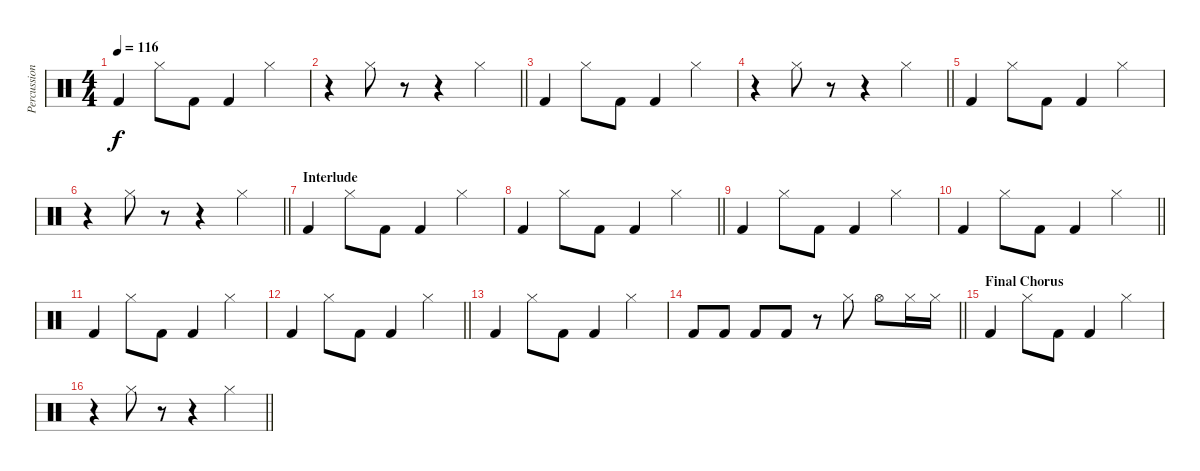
\track ("Percussion" "Percussion") {instrument percussion}
\staff {score}
\articulation defaults
\ts (4 4)
\tempo 116
\clef neutral
\ks c "Kick (hit) 2".4{dy f} "Hi-Hat (closed)".8 "Kick (hit) 2".8 "Kick (hit) 2".4 "Hi-Hat (closed)".4
|
\barLineRight lightlight
r.4 "Hi-Hat (closed)".8 r.8 r.4 "Hi-Hat (closed)".4 |
"Kick (hit) 2".4 "Hi-Hat (closed)".8 "Kick (hit) 2".8 "Kick (hit) 2".4 "Hi-Hat (closed)".4 |
\barLineRight lightlight
r.4 "Hi-Hat (closed)".8 r.8 r.4 "Hi-Hat (closed)".4 |
"Kick (hit) 2".4 "Hi-Hat (closed)".8 "Kick (hit) 2".8 "Kick (hit) 2".4 "Hi-Hat (closed)".4 |
\barLineRight lightlight
r.4 "Hi-Hat (closed)".8 r.8 r.4 "Hi-Hat (closed)".4 |
\section ("" "Interlude")
"Kick (hit) 2".4 "Hi-Hat (closed)".8 "Kick (hit) 2".8 "Kick (hit) 2".4 "Hi-Hat (closed)".4 |
\barLineRight lightlight "Kick (hit) 2".4 "Hi-Hat (closed)".8 "Kick (hit) 2".8 "Kick (hit) 2".4 "Hi-Hat (closed)".4
|
"Kick (hit) 2".4 "Hi-Hat (closed)".8 "Kick (hit) 2".8 "Kick (hit) 2".4 "Hi-Hat (closed)".4 |
\barLineRight lightlight "Kick (hit) 2".4 "Hi-Hat (closed)".8 "Kick (hit) 2".8 "Kick (hit) 2".4 "Hi-Hat (closed)".4
|
"Kick (hit) 2".4 "Hi-Hat (closed)".8 "Kick (hit) 2".8 "Kick (hit) 2".4 "Hi-Hat (closed)".4 |
\barLineRight lightlight "Kick (hit) 2".4 "Hi-Hat (closed)".8 "Kick (hit) 2".8 "Kick (hit) 2".4 "Hi-Hat (closed)".4
|
"Kick (hit) 2".4 "Hi-Hat (closed)".8 "Kick (hit) 2".8 "Kick (hit) 2".4 "Hi-Hat (closed)".4 |
\barLineRight lightlight "Kick (hit) 2".8 "Kick (hit) 2".8 "Kick (hit) 2".8 "Kick (hit) 2".8
r.8 "Hi-Hat (closed)".8 "Hi-Hat (open)".8 "Hi-Hat (closed)".16 "Hi-Hat (closed)".16 |
\section ("" "Final Chorus")
"Kick (hit) 2".4 "Hi-Hat (closed)".8 "Kick (hit) 2".8 "Kick (hit) 2".4 "Hi-Hat (closed)".4 |
\barLineRight lightlight
r.4 "Hi-Hat (closed)".8 r.8 r.4 "Hi-Hat (closed)".4
